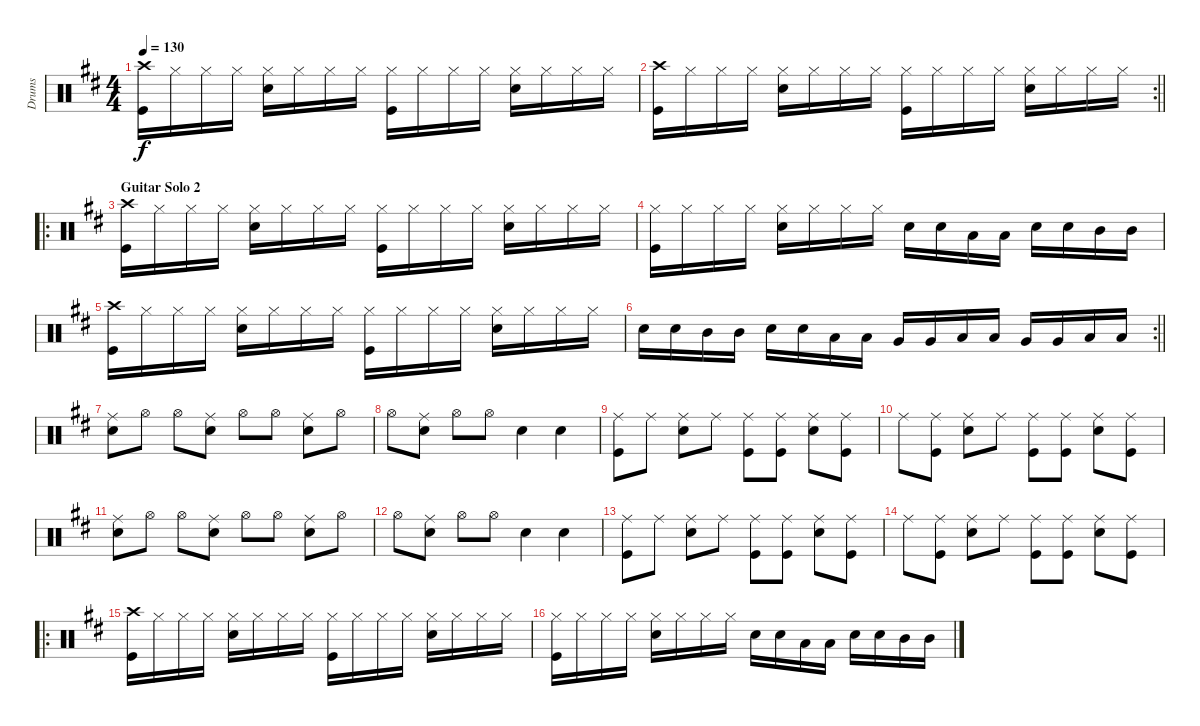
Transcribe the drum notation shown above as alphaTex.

\track ("Drums" "Drums") {instrument percussion}
\staff {score}
\articulation defaults
\ts (4 4)
\tempo 130
\clef neutral
\ks d
("Crash high (hit)" "Kick (hit)").16{dy f} "Hi-Hat (closed)".16 "Hi-Hat (closed)".16 "Hi-Hat (closed)".16 ("Hi-Hat (closed)" "Snare (hit) 2").16 "Hi-Hat (closed)".16 "Hi-Hat (closed)".16 "Hi-Hat (closed)".16 ("Hi-Hat (closed)" "Kick (hit)").16 "Hi-Hat (closed)".16 "Hi-Hat (closed)".16 "Hi-Hat (closed)".16 ("Hi-Hat (closed)" "Snare (hit) 2").16 "Hi-Hat (closed)".16 "Hi-Hat (closed)".16 "Hi-Hat (closed)".16 |
\rc 2
\barLineRight lightlight
("Crash high (hit)" "Kick (hit)").16 "Hi-Hat (closed)".16 "Hi-Hat (closed)".16 "Hi-Hat (closed)".16 ("Hi-Hat (closed)" "Snare (hit) 2").16 "Hi-Hat (closed)".16 "Hi-Hat (closed)".16 "Hi-Hat (closed)".16 ("Hi-Hat (closed)" "Kick (hit)").16 "Hi-Hat (closed)".16 "Hi-Hat (closed)".16 "Hi-Hat (closed)".16 ("Hi-Hat (closed)" "Snare (hit) 2").16 "Hi-Hat (closed)".16 "Hi-Hat (closed)".16 "Hi-Hat (closed)".16 |
\ro
\section ("" "Guitar Solo 2")
("Crash high (hit)" "Kick (hit)").16 "Hi-Hat (closed)".16 "Hi-Hat (closed)".16 "Hi-Hat (closed)".16 ("Hi-Hat (closed)" "Snare (hit) 2").16 "Hi-Hat (closed)".16 "Hi-Hat (closed)".16 "Hi-Hat (closed)".16 ("Hi-Hat (closed)" "Kick (hit)").16 "Hi-Hat (closed)".16 "Hi-Hat (closed)".16 "Hi-Hat (closed)".16 ("Hi-Hat (closed)" "Snare (hit) 2").16 "Hi-Hat (closed)".16 "Hi-Hat (closed)".16 "Hi-Hat (closed)".16 |
("Hi-Hat (closed)" "Kick (hit)").16 "Hi-Hat (closed)".16 "Hi-Hat (closed)".16 "Hi-Hat (closed)".16 ("Hi-Hat (closed)" "Snare (hit) 2").16 "Hi-Hat (closed)".16 "Hi-Hat (closed)".16 "Hi-Hat (closed)".16 "Snare (hit) 2".16 "Snare (hit) 2".16 "Low Tom (hit)".16 "Low Tom (hit)".16 "Snare (hit) 2".16 "Snare (hit) 2".16 "Mid Tom (hit)".16 "Mid Tom (hit)".16 |
("Crash high (hit)" "Kick (hit)").16 "Hi-Hat (closed)".16 "Hi-Hat (closed)".16 "Hi-Hat (closed)".16 ("Hi-Hat (closed)" "Snare (hit) 2").16 "Hi-Hat (closed)".16 "Hi-Hat (closed)".16 "Hi-Hat (closed)".16 ("Hi-Hat (closed)" "Kick (hit)").16 "Hi-Hat (closed)".16 "Hi-Hat (closed)".16 "Hi-Hat (closed)".16 ("Hi-Hat (closed)" "Snare (hit) 2").16 "Hi-Hat (closed)".16 "Hi-Hat (closed)".16 "Hi-Hat (closed)".16 |
\rc 2
\barLineRight lightlight "Snare (hit) 2".16 "Snare (hit) 2".16 "Mid Tom (hit)".16 "Mid Tom (hit)".16 "Snare (hit) 2".16 "Snare (hit) 2".16 "Low Tom (hit)".16 "Low Tom (hit)".16 "Very Low Tom (hit)".16 "Very Low Tom (hit)".16 "Low Floor Tom (hit)".16 "Low Floor Tom (hit)".16 "Very Low Tom (hit)".16 "Very Low Tom (hit)".16 "Low Floor Tom (hit)".16 "Low Floor Tom (hit)".16
|
("Ride (middle)" "Snare (hit) 2").8 "Hi-Hat (open)".8 "Hi-Hat (open)".8 ("Ride (middle)" "Snare (hit) 2").8 "Hi-Hat (open)".8 "Hi-Hat (open)".8 ("Ride (middle)" "Snare (hit) 2").8 "Hi-Hat (open)".8 |
"Hi-Hat (open)".8 ("Ride (middle)" "Snare (hit) 2").8 "Hi-Hat (open)".8 "Hi-Hat (open)".8 "Snare (hit) 2".4 "Snare (hit) 2".4 |
("Ride (middle)" "Kick (hit)").8 "Ride (middle)".8 ("Ride (middle)" "Snare (hit) 2").8 "Ride (middle)".8 ("Ride (middle)" "Kick (hit)").8 ("Ride (middle)" "Kick (hit)").8 ("Ride (middle)" "Snare (hit) 2").8 ("Ride (middle)" "Kick (hit)").8 |
"Ride (middle)".8 ("Ride (middle)" "Kick (hit)").8 ("Ride (middle)" "Snare (hit) 2").8 "Ride (middle)".8 ("Ride (middle)" "Kick (hit)").8 ("Ride (middle)" "Kick (hit)").8 ("Ride (middle)" "Snare (hit) 2").8 ("Ride (middle)" "Kick (hit)").8 |
("Ride (middle)" "Snare (hit) 2").8 "Hi-Hat (open)".8 "Hi-Hat (open)".8 ("Ride (middle)" "Snare (hit) 2").8 "Hi-Hat (open)".8 "Hi-Hat (open)".8 ("Ride (middle)" "Snare (hit) 2").8 "Hi-Hat (open)".8 |
"Hi-Hat (open)".8 ("Ride (middle)" "Snare (hit) 2").8 "Hi-Hat (open)".8 "Hi-Hat (open)".8 "Snare (hit) 2".4 "Snare (hit) 2".4 |
("Ride (middle)" "Kick (hit)").8 "Ride (middle)".8 ("Ride (middle)" "Snare (hit) 2").8 "Ride (middle)".8 ("Ride (middle)" "Kick (hit)").8 ("Ride (middle)" "Kick (hit)").8 ("Ride (middle)" "Snare (hit) 2").8 ("Ride (middle)" "Kick (hit)").8 |
"Ride (middle)".8 ("Ride (middle)" "Kick (hit)").8 ("Ride (middle)" "Snare (hit) 2").8 "Ride (middle)".8 ("Ride (middle)" "Kick (hit)").8 ("Ride (middle)" "Kick (hit)").8 ("Ride (middle)" "Snare (hit) 2").8 ("Ride (middle)" "Kick (hit)").8 |
\ro
("Crash high (hit)" "Kick (hit)").16 "Hi-Hat (closed)".16 "Hi-Hat (closed)".16 "Hi-Hat (closed)".16 ("Hi-Hat (closed)" "Snare (hit) 2").16 "Hi-Hat (closed)".16 "Hi-Hat (closed)".16 "Hi-Hat (closed)".16 ("Hi-Hat (closed)" "Kick (hit)").16 "Hi-Hat (closed)".16 "Hi-Hat (closed)".16 "Hi-Hat (closed)".16 ("Hi-Hat (closed)" "Snare (hit) 2").16 "Hi-Hat (closed)".16 "Hi-Hat (closed)".16 "Hi-Hat (closed)".16 |
("Hi-Hat (closed)" "Kick (hit)").16 "Hi-Hat (closed)".16 "Hi-Hat (closed)".16 "Hi-Hat (closed)".16 ("Hi-Hat (closed)" "Snare (hit) 2").16 "Hi-Hat (closed)".16 "Hi-Hat (closed)".16 "Hi-Hat (closed)".16 "Snare (hit) 2".16 "Snare (hit) 2".16 "Low Tom (hit)".16 "Low Tom (hit)".16 "Snare (hit) 2".16 "Snare (hit) 2".16 "Mid Tom (hit)".16 "Mid Tom (hit)".16
